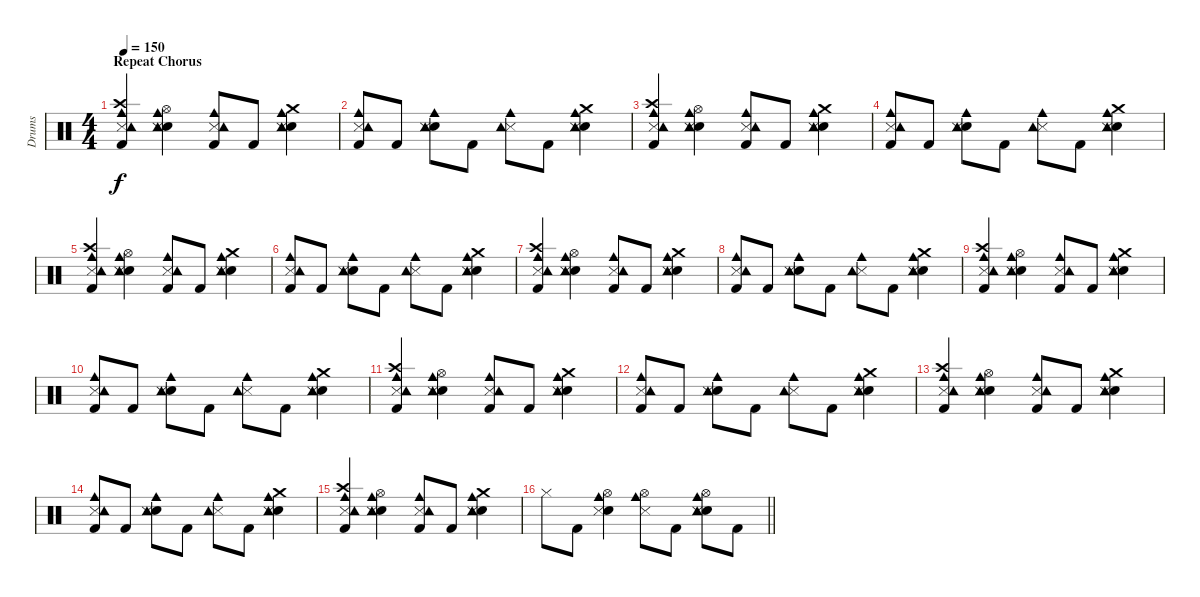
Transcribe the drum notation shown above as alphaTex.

\track ("Drums" "Drums") {instrument percussion}
\staff {score}
\articulation defaults
\ts (4 4)
\section ("" "Repeat Chorus")
\tempo 150
\clef neutral
\ks c
("Kick (hit) 2" "Crash high (hit)" "Cowbell medium (hit)" "Snare (side stick) 3" "Tambourine (hit)").4{dy f} ("Electric Snare (hit)" "Hi-Hat (open)" "Cowbell medium (hit)" "Snare (side stick) 3" "Tambourine (hit)").4 ("Kick (hit) 2" "Cowbell medium (hit)" "Snare (side stick) 3" "Tambourine (hit)").8 "Kick (hit) 2".8 ("Electric Snare (hit)" "Crash medium (hit)" "Cowbell medium (hit)" "Snare (side stick) 3" "Tambourine (hit)").4 |
("Kick (hit) 2" "Cowbell medium (hit)" "Snare (side stick) 3" "Tambourine (hit)").8 "Kick (hit) 2".8 ("Electric Snare (hit)" "Cowbell medium (hit)" "Snare (side stick) 3" "Tambourine (hit)").8 "Kick (hit) 2".8 ("Cowbell medium (hit)" "Snare (side stick) 3" "Tambourine (hit)").8 "Kick (hit) 2".8 ("Electric Snare (hit)" "Crash medium (hit)" "Cowbell medium (hit)" "Snare (side stick) 3" "Tambourine (hit)").4 |
("Kick (hit) 2" "Crash high (hit)" "Cowbell medium (hit)" "Snare (side stick) 3" "Tambourine (hit)").4 ("Electric Snare (hit)" "Hi-Hat (open)" "Cowbell medium (hit)" "Snare (side stick) 3" "Tambourine (hit)").4 ("Kick (hit) 2" "Cowbell medium (hit)" "Snare (side stick) 3" "Tambourine (hit)").8 "Kick (hit) 2".8 ("Electric Snare (hit)" "Crash medium (hit)" "Cowbell medium (hit)" "Snare (side stick) 3" "Tambourine (hit)").4 |
("Kick (hit) 2" "Cowbell medium (hit)" "Snare (side stick) 3" "Tambourine (hit)").8 "Kick (hit) 2".8 ("Electric Snare (hit)" "Cowbell medium (hit)" "Snare (side stick) 3" "Tambourine (hit)").8 "Kick (hit) 2".8 ("Cowbell medium (hit)" "Snare (side stick) 3" "Tambourine (hit)").8 "Kick (hit) 2".8 ("Electric Snare (hit)" "Crash medium (hit)" "Cowbell medium (hit)" "Snare (side stick) 3" "Tambourine (hit)").4 |
("Kick (hit) 2" "Crash high (hit)" "Cowbell medium (hit)" "Snare (side stick) 3" "Tambourine (hit)").4 ("Electric Snare (hit)" "Hi-Hat (open)" "Cowbell medium (hit)" "Snare (side stick) 3" "Tambourine (hit)").4 ("Kick (hit) 2" "Cowbell medium (hit)" "Snare (side stick) 3" "Tambourine (hit)").8 "Kick (hit) 2".8 ("Electric Snare (hit)" "Crash medium (hit)" "Cowbell medium (hit)" "Snare (side stick) 3" "Tambourine (hit)").4 |
("Kick (hit) 2" "Cowbell medium (hit)" "Snare (side stick) 3" "Tambourine (hit)").8 "Kick (hit) 2".8 ("Electric Snare (hit)" "Cowbell medium (hit)" "Snare (side stick) 3" "Tambourine (hit)").8 "Kick (hit) 2".8 ("Cowbell medium (hit)" "Snare (side stick) 3" "Tambourine (hit)").8 "Kick (hit) 2".8 ("Electric Snare (hit)" "Crash medium (hit)" "Cowbell medium (hit)" "Snare (side stick) 3" "Tambourine (hit)").4 |
("Kick (hit) 2" "Crash high (hit)" "Cowbell medium (hit)" "Snare (side stick) 3" "Tambourine (hit)").4 ("Electric Snare (hit)" "Hi-Hat (open)" "Cowbell medium (hit)" "Snare (side stick) 3" "Tambourine (hit)").4 ("Kick (hit) 2" "Cowbell medium (hit)" "Snare (side stick) 3" "Tambourine (hit)").8 "Kick (hit) 2".8 ("Electric Snare (hit)" "Crash medium (hit)" "Cowbell medium (hit)" "Snare (side stick) 3" "Tambourine (hit)").4 |
("Kick (hit) 2" "Cowbell medium (hit)" "Snare (side stick) 3" "Tambourine (hit)").8 "Kick (hit) 2".8 ("Electric Snare (hit)" "Cowbell medium (hit)" "Snare (side stick) 3" "Tambourine (hit)").8 "Kick (hit) 2".8 ("Cowbell medium (hit)" "Snare (side stick) 3" "Tambourine (hit)").8 "Kick (hit) 2".8 ("Electric Snare (hit)" "Crash medium (hit)" "Cowbell medium (hit)" "Snare (side stick) 3" "Tambourine (hit)").4 |
("Kick (hit) 2" "Crash high (hit)" "Cowbell medium (hit)" "Snare (side stick) 3" "Tambourine (hit)").4 ("Electric Snare (hit)" "Hi-Hat (open)" "Cowbell medium (hit)" "Snare (side stick) 3" "Tambourine (hit)").4 ("Kick (hit) 2" "Cowbell medium (hit)" "Snare (side stick) 3" "Tambourine (hit)").8 "Kick (hit) 2".8 ("Electric Snare (hit)" "Crash medium (hit)" "Cowbell medium (hit)" "Snare (side stick) 3" "Tambourine (hit)").4 |
("Kick (hit) 2" "Cowbell medium (hit)" "Snare (side stick) 3" "Tambourine (hit)").8 "Kick (hit) 2".8 ("Electric Snare (hit)" "Cowbell medium (hit)" "Snare (side stick) 3" "Tambourine (hit)").8 "Kick (hit) 2".8 ("Cowbell medium (hit)" "Snare (side stick) 3" "Tambourine (hit)").8 "Kick (hit) 2".8 ("Electric Snare (hit)" "Crash medium (hit)" "Cowbell medium (hit)" "Snare (side stick) 3" "Tambourine (hit)").4 |
("Kick (hit) 2" "Crash high (hit)" "Cowbell medium (hit)" "Snare (side stick) 3" "Tambourine (hit)").4 ("Electric Snare (hit)" "Hi-Hat (open)" "Cowbell medium (hit)" "Snare (side stick) 3" "Tambourine (hit)").4 ("Kick (hit) 2" "Cowbell medium (hit)" "Snare (side stick) 3" "Tambourine (hit)").8 "Kick (hit) 2".8 ("Electric Snare (hit)" "Crash medium (hit)" "Cowbell medium (hit)" "Snare (side stick) 3" "Tambourine (hit)").4 |
("Kick (hit) 2" "Cowbell medium (hit)" "Snare (side stick) 3" "Tambourine (hit)").8 "Kick (hit) 2".8 ("Electric Snare (hit)" "Cowbell medium (hit)" "Snare (side stick) 3" "Tambourine (hit)").8 "Kick (hit) 2".8 ("Cowbell medium (hit)" "Snare (side stick) 3" "Tambourine (hit)").8 "Kick (hit) 2".8 ("Electric Snare (hit)" "Crash medium (hit)" "Cowbell medium (hit)" "Snare (side stick) 3" "Tambourine (hit)").4 |
("Kick (hit) 2" "Crash high (hit)" "Cowbell medium (hit)" "Snare (side stick) 3" "Tambourine (hit)").4 ("Electric Snare (hit)" "Hi-Hat (open)" "Cowbell medium (hit)" "Snare (side stick) 3" "Tambourine (hit)").4 ("Kick (hit) 2" "Cowbell medium (hit)" "Snare (side stick) 3" "Tambourine (hit)").8 "Kick (hit) 2".8 ("Electric Snare (hit)" "Crash medium (hit)" "Cowbell medium (hit)" "Snare (side stick) 3" "Tambourine (hit)").4 |
("Kick (hit) 2" "Cowbell medium (hit)" "Snare (side stick) 3" "Tambourine (hit)").8 "Kick (hit) 2".8 ("Electric Snare (hit)" "Cowbell medium (hit)" "Snare (side stick) 3" "Tambourine (hit)").8 "Kick (hit) 2".8 ("Cowbell medium (hit)" "Snare (side stick) 3" "Tambourine (hit)").8 "Kick (hit) 2".8 ("Electric Snare (hit)" "Crash medium (hit)" "Cowbell medium (hit)" "Snare (side stick) 3" "Tambourine (hit)").4 |
("Kick (hit) 2" "Crash high (hit)" "Cowbell medium (hit)" "Snare (side stick) 3" "Tambourine (hit)").4 ("Electric Snare (hit)" "Hi-Hat (open)" "Cowbell medium (hit)" "Snare (side stick) 3" "Tambourine (hit)").4 ("Kick (hit) 2" "Cowbell medium (hit)" "Snare (side stick) 3" "Tambourine (hit)").8 "Kick (hit) 2".8 ("Electric Snare (hit)" "Crash medium (hit)" "Cowbell medium (hit)" "Snare (side stick) 3" "Tambourine (hit)").4 |
\barLineRight lightlight "Hi-Hat (closed)".8 "Kick (hit) 2".8
("Electric Snare (hit)" "Hi-Hat (open)" "Cowbell medium (hit)" "Snare (side stick) 3").4 ("Hi-Hat (open)" "Cowbell medium (hit)" "Snare (side stick) 3").8 "Kick (hit) 2".8 ("Electric Snare (hit)" "Hi-Hat (open)" "Cowbell medium (hit)" "Snare (side stick) 3" "Tambourine (hit)").8 "Kick (hit) 2".8
